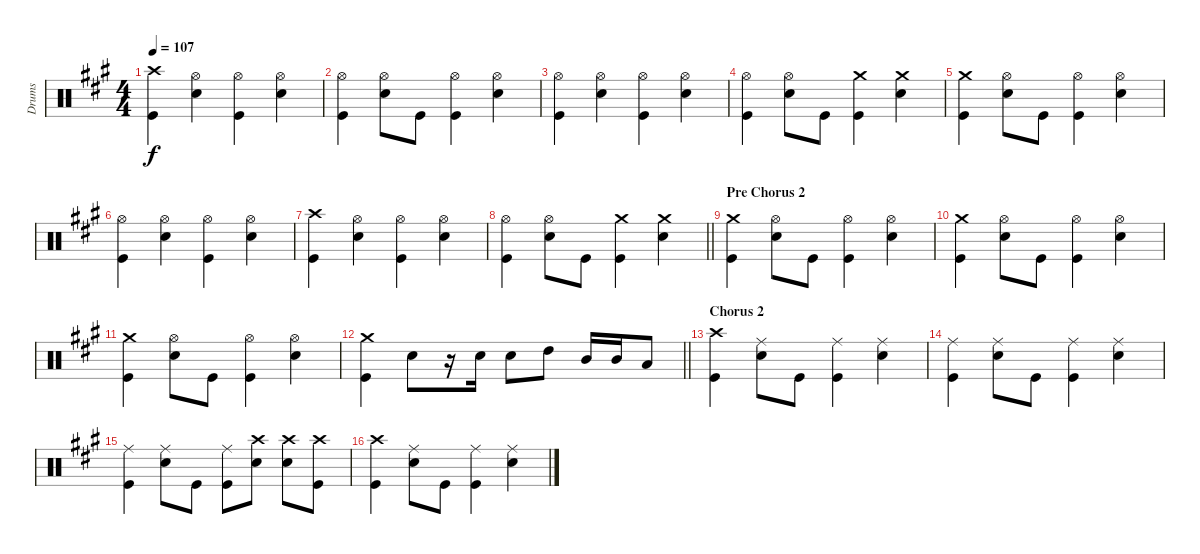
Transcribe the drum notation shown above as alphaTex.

\track ("Drums" "Drums") {instrument percussion}
\staff {score}
\articulation defaults
\ts (4 4)
\tempo 107
\clef neutral
\ks a
("Crash high (hit)" "Kick (hit)").4{dy f} ("Hi-Hat (open)" "Snare (hit) 2").4 ("Hi-Hat (open)" "Kick (hit)").4 ("Hi-Hat (open)" "Snare (hit) 2").4 |
("Hi-Hat (open)" "Kick (hit)").4 ("Hi-Hat (open)" "Snare (hit) 2").8 "Kick (hit)".8 ("Hi-Hat (open)" "Kick (hit)").4 ("Hi-Hat (open)" "Snare (hit) 2").4 |
("Hi-Hat (open)" "Kick (hit)").4 ("Hi-Hat (open)" "Snare (hit) 2").4 ("Hi-Hat (open)" "Kick (hit)").4 ("Hi-Hat (open)" "Snare (hit) 2").4 |
("Hi-Hat (open)" "Kick (hit)").4 ("Hi-Hat (open)" "Snare (hit) 2").8 "Kick (hit)".8 ("Crash medium (hit)" "Kick (hit)").4 ("Crash medium (hit)" "Snare (hit) 2").4 |
("Crash medium (hit)" "Kick (hit)").4 ("Hi-Hat (open)" "Snare (hit) 2").8 "Kick (hit)".8 ("Hi-Hat (open)" "Kick (hit)").4 ("Hi-Hat (open)" "Snare (hit) 2").4 |
("Hi-Hat (open)" "Kick (hit)").4 ("Hi-Hat (open)" "Snare (hit) 2").4 ("Hi-Hat (open)" "Kick (hit)").4 ("Hi-Hat (open)" "Snare (hit) 2").4 |
("Crash high (hit)" "Kick (hit)").4 ("Hi-Hat (open)" "Snare (hit) 2").4 ("Hi-Hat (open)" "Kick (hit)").4 ("Hi-Hat (open)" "Snare (hit) 2").4 |
\barLineRight lightlight
("Hi-Hat (open)" "Kick (hit)").4 ("Hi-Hat (open)" "Snare (hit) 2").8 "Kick (hit)".8 ("Crash medium (hit)" "Kick (hit)").4 ("Crash medium (hit)" "Snare (hit) 2").4 |
\section ("" "Pre Chorus 2")
("Crash medium (hit)" "Kick (hit)").4 ("Hi-Hat (open)" "Snare (hit) 2").8 "Kick (hit)".8 ("Hi-Hat (open)" "Kick (hit)").4 ("Hi-Hat (open)" "Snare (hit) 2").4 |
("Crash medium (hit)" "Kick (hit)").4 ("Hi-Hat (open)" "Snare (hit) 2").8 "Kick (hit)".8 ("Hi-Hat (open)" "Kick (hit)").4 ("Hi-Hat (open)" "Snare (hit) 2").4 |
("Crash medium (hit)" "Kick (hit)").4 ("Hi-Hat (open)" "Snare (hit) 2").8 "Kick (hit)".8 ("Hi-Hat (open)" "Kick (hit)").4 ("Hi-Hat (open)" "Snare (hit) 2").4 |
\barLineRight lightlight
("Crash medium (hit)" "Kick (hit)").4 "Snare (hit) 2".8 r.16 "Snare (hit) 2".16 "Snare (hit) 2".8 "High Tom (hit)".8 "Mid Tom (hit)".16 "Mid Tom (hit)".16 "Low Tom (hit)".8 |
\section ("" "Chorus 2")
("Crash high (hit)" "Kick (hit)").4 ("Ride (middle)" "Snare (hit) 2").8 "Kick (hit)".8 ("Ride (middle)" "Kick (hit)").4 ("Ride (middle)" "Snare (hit) 2").4 |
("Ride (middle)" "Kick (hit)").4 ("Ride (middle)" "Snare (hit) 2").8 "Kick (hit)".8 ("Ride (middle)" "Kick (hit)").4 ("Ride (middle)" "Snare (hit) 2").4 |
("Ride (middle)" "Kick (hit)").4 ("Ride (middle)" "Snare (hit) 2").8 "Kick (hit)".8 ("Ride (middle)" "Kick (hit)").8 ("Crash high (hit)" "Snare (hit) 2").8 ("Crash high (hit)" "Snare (hit) 2").8 ("Crash high (hit)" "Kick (hit)").8 |
("Crash high (hit)" "Kick (hit)").4 ("Ride (middle)" "Snare (hit) 2").8 "Kick (hit)".8 ("Ride (middle)" "Kick (hit)").4 ("Ride (middle)" "Snare (hit) 2").4
